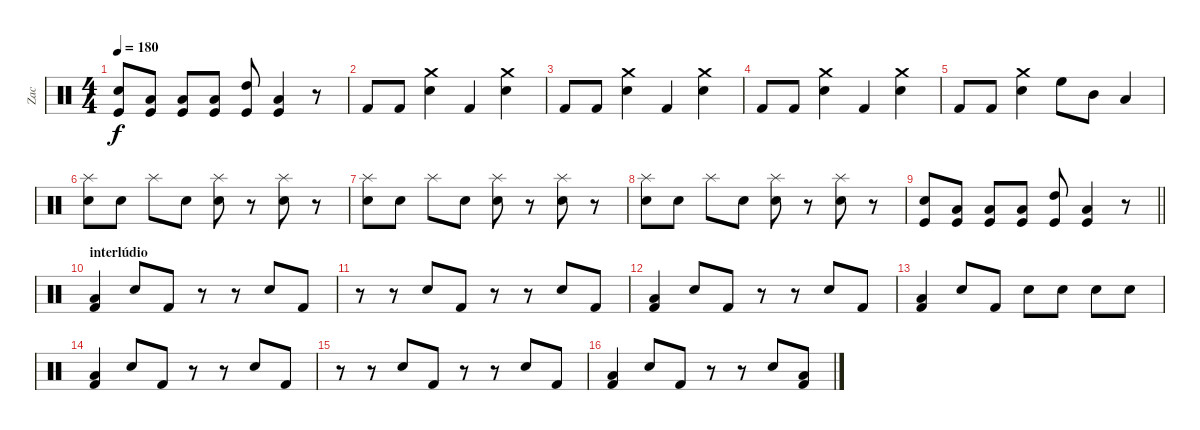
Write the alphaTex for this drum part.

\track ("Zac" "Zac") {instrument percussion}
\staff {score}
\articulation defaults
\ts (4 4)
\tempo 180
\clef neutral
\ks c
("Kick (hit)" "Electric Snare (hit)").8{dy f} ("Kick (hit)" "Low Tom (hit)").8 ("Kick (hit)" "Low Tom (hit)").8 ("Kick (hit)" "Low Tom (hit)").8 ("Kick (hit)" "High Tom (hit)").8 ("Kick (hit)" "Low Tom (hit)").4 r.8 |
"Kick (hit) 2".8 "Kick (hit) 2".8 ("Crash medium (hit)" "Electric Snare (hit)").4 "Kick (hit) 2".4 ("Crash medium (hit)" "Electric Snare (hit)").4 |
"Kick (hit) 2".8 "Kick (hit) 2".8 ("Crash medium (hit)" "Electric Snare (hit)").4 "Kick (hit) 2".4 ("Crash medium (hit)" "Electric Snare (hit)").4 |
"Kick (hit) 2".8 "Kick (hit) 2".8 ("Crash medium (hit)" "Electric Snare (hit)").4 "Kick (hit) 2".4 ("Crash medium (hit)" "Electric Snare (hit)").4 |
"Kick (hit) 2".8 "Kick (hit) 2".8 ("Crash medium (hit)" "Electric Snare (hit)").4 "High Floor Tom (hit)".8 "Mid Tom (hit)".8 "Low Tom (hit)".4 |
("Electric Snare (hit)" "Splash (hit)").8 "Electric Snare (hit)".8 "Splash (hit)".8 "Electric Snare (hit)".8 ("Electric Snare (hit)" "Splash (hit)").8 r.8 ("Electric Snare (hit)" "Splash (hit)").8 r.8 |
("Electric Snare (hit)" "Splash (hit)").8 "Electric Snare (hit)".8 "Splash (hit)".8 "Electric Snare (hit)".8 ("Electric Snare (hit)" "Splash (hit)").8 r.8 ("Electric Snare (hit)" "Splash (hit)").8 r.8 |
("Electric Snare (hit)" "Splash (hit)").8 "Electric Snare (hit)".8 "Splash (hit)".8 "Electric Snare (hit)".8 ("Electric Snare (hit)" "Splash (hit)").8 r.8 ("Electric Snare (hit)" "Splash (hit)").8 r.8 |
\barLineRight lightlight
("Kick (hit)" "Electric Snare (hit)").8 ("Kick (hit)" "Low Tom (hit)").8 ("Kick (hit)" "Low Tom (hit)").8 ("Kick (hit)" "Low Tom (hit)").8 ("Kick (hit)" "High Tom (hit)").8 ("Kick (hit)" "Low Tom (hit)").4 r.8 |
\section ("" "interlúdio")
("Kick (hit) 2" "Low Floor Tom (hit)").4 "Electric Snare (hit)".8 "Kick (hit) 2".8 r.8 r.8 "Electric Snare (hit)".8 "Kick (hit) 2".8 |
r.8 r.8 "Electric Snare (hit)".8 "Kick (hit) 2".8 r.8 r.8 "Electric Snare (hit)".8 "Kick (hit) 2".8 |
("Kick (hit) 2" "Low Floor Tom (hit)").4 "Electric Snare (hit)".8 "Kick (hit) 2".8 r.8 r.8 "Electric Snare (hit)".8 "Kick (hit) 2".8 |
("Kick (hit) 2" "Low Floor Tom (hit)").4 "Electric Snare (hit)".8 "Kick (hit) 2".8 "Electric Snare (hit)".8 "Electric Snare (hit)".8 "Electric Snare (hit)".8 "Electric Snare (hit)".8 |
("Kick (hit) 2" "Low Floor Tom (hit)").4 "Electric Snare (hit)".8 "Kick (hit) 2".8 r.8 r.8 "Electric Snare (hit)".8 "Kick (hit) 2".8 |
r.8 r.8 "Electric Snare (hit)".8 "Kick (hit) 2".8 r.8 r.8 "Electric Snare (hit)".8 "Kick (hit) 2".8 |
("Kick (hit) 2" "Low Floor Tom (hit)").4 "Electric Snare (hit)".8 "Kick (hit) 2".8 r.8 r.8 "Electric Snare (hit)".8 ("Low Floor Tom (hit)" "Kick (hit) 2").8
